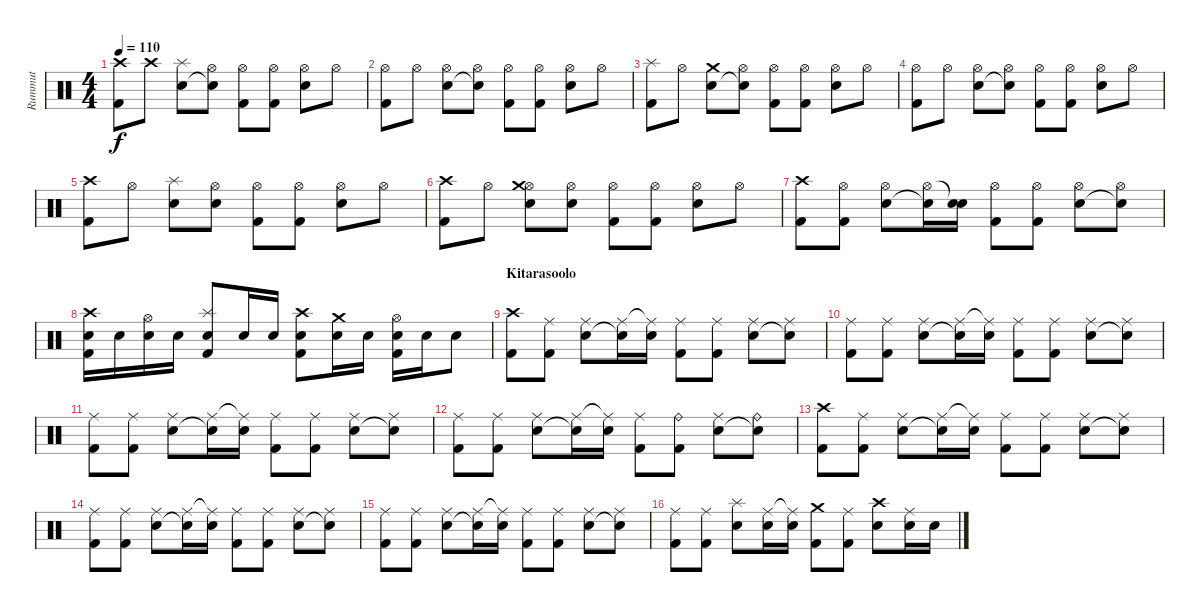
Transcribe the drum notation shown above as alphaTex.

\track ("Rummut" "Rummut") {instrument percussion}
\staff {score}
\articulation defaults
\ts (4 4)
\tempo 110
\clef neutral
\ks c
("Crash high (hit)" "Kick (hit) 2").8{dy f} "Crash high (hit)".8 ("Splash (hit)" "Snare (hit) 2").8 ("Hi-Hat (open)" "Snare (hit)"{t}).8 ("Hi-Hat (open)" "Kick (hit) 2").8 ("Hi-Hat (open)" "Kick (hit) 2").8 ("Hi-Hat (open)" "Snare (hit) 2").8 "Hi-Hat (open)".8 |
("Hi-Hat (open)" "Kick (hit) 2").8 "Hi-Hat (open)".8 ("Hi-Hat (open)" "Snare (hit) 2").8 ("Hi-Hat (open)" "Snare (hit)"{t}).8 ("Hi-Hat (open)" "Kick (hit) 2").8 ("Hi-Hat (open)" "Kick (hit) 2").8 ("Hi-Hat (open)" "Snare (hit) 2").8 "Hi-Hat (open)".8 |
("Splash (hit)" "Kick (hit) 2").8 "Hi-Hat (open)".8 ("Crash medium (hit)" "Snare (hit) 2").8 ("Hi-Hat (open)" "Snare (hit)"{t}).8 ("Hi-Hat (open)" "Kick (hit) 2").8 ("Hi-Hat (open)" "Kick (hit) 2").8 ("Hi-Hat (open)" "Snare (hit) 2").8 "Hi-Hat (open)".8 |
("Hi-Hat (open)" "Kick (hit) 2").8 "Hi-Hat (open)".8 ("Hi-Hat (open)" "Snare (hit) 2").8 ("Hi-Hat (open)" "Snare (hit)"{t}).8 ("Hi-Hat (open)" "Kick (hit) 2").8 ("Hi-Hat (open)" "Kick (hit) 2").8 ("Hi-Hat (open)" "Snare (hit) 2").8 "Hi-Hat (open)".8 |
("Crash high (hit)" "Kick (hit) 2").8 "Hi-Hat (open)".8 ("Splash (hit)" "Snare (hit) 2").8 ("Hi-Hat (open)" "Snare (hit) 2").8 ("Hi-Hat (open)" "Kick (hit) 2").8 ("Hi-Hat (open)" "Kick (hit) 2").8 ("Hi-Hat (open)" "Snare (hit) 2").8 "Hi-Hat (open)".8 |
("Crash high (hit)" "Kick (hit) 2").8 "Hi-Hat (open)".8 ("Hi-Hat (open)" "Crash medium (hit)" "Snare (hit) 2").8 ("Hi-Hat (open)" "Snare (hit) 2").8 ("Hi-Hat (open)" "Kick (hit) 2").8 ("Hi-Hat (open)" "Kick (hit) 2").8 ("Hi-Hat (open)" "Snare (hit) 2").8 "Hi-Hat (open)".8 |
("Crash high (hit)" "Kick (hit) 2").8 ("Hi-Hat (open)" "Kick (hit) 2").8 ("Hi-Hat (open)" "Snare (hit) 2").8 ("Hi-Hat (open)" "Snare (hit) 2"{t}).16 ("Snare (hit)"{t} "Snare (hit) 2").16 ("Hi-Hat (open)" "Kick (hit) 2").8 ("Hi-Hat (open)" "Kick (hit) 2").8 ("Hi-Hat (open)" "Snare (hit) 2").8 ("Hi-Hat (open)" "Snare (hit)"{t}).8 |
("Crash high (hit)" "Snare (hit) 2" "Kick (hit) 2").16 "Snare (hit) 2".16 ("Hi-Hat (open)" "Snare (hit) 2").16 "Snare (hit) 2".16 ("Splash (hit)" "Snare (hit) 2" "Kick (hit) 2").8 "Snare (hit) 2".16 "Snare (hit) 2".16 ("Crash high (hit)" "Snare (hit) 2" "Kick (hit) 2").8 ("Crash medium (hit)" "Snare (hit) 2").16 "Snare (hit) 2".16 ("Hi-Hat (open)" "Snare (hit) 2" "Kick (hit) 2").16 "Snare (hit) 2".16 "Snare (hit) 2".8 |
\section ("" "Kitarasoolo")
("Crash high (hit)" "Kick (hit) 2").8 ("Ride (middle)" "Kick (hit) 2").8 ("Ride (middle)" "Snare (hit) 2").8 ("Ride (middle)" "Snare (hit)"{t}).16 ("Ride (middle)"{t} "Snare (hit) 2").16 ("Ride (middle)" "Kick (hit) 2").8 ("Ride (middle)" "Kick (hit) 2").8 ("Ride (middle)" "Snare (hit) 2").8 ("Ride (middle)" "Snare (hit)"{t}).8 |
("Ride (middle)" "Kick (hit) 2").8 ("Ride (middle)" "Kick (hit) 2").8 ("Ride (middle)" "Snare (hit) 2").8 ("Ride (middle)" "Snare (hit)"{t}).16 ("Ride (middle)"{t} "Snare (hit) 2").16 ("Ride (middle)" "Kick (hit) 2").8 ("Ride (middle)" "Kick (hit) 2").8 ("Ride (middle)" "Snare (hit) 2").8 ("Ride (middle)" "Snare (hit)"{t}).8 |
("Ride (middle)" "Kick (hit) 2").8 ("Ride (middle)" "Kick (hit) 2").8 ("Ride (middle)" "Snare (hit) 2").8 ("Ride (middle)" "Snare (hit)"{t}).16 ("Ride (middle)"{t} "Snare (hit) 2").16 ("Ride (middle)" "Kick (hit) 2").8 ("Ride (middle)" "Kick (hit) 2").8 ("Ride (middle)" "Snare (hit) 2").8 ("Ride (middle)" "Snare (hit)"{t}).8 |
("Ride (middle)" "Kick (hit) 2").8 ("Ride (middle)" "Kick (hit) 2").8 ("Ride (middle)" "Snare (hit) 2").8 ("Ride (middle)" "Snare (hit)"{t}).16 ("Ride (middle)"{t} "Snare (hit) 2").16 ("Ride (middle)" "Kick (hit) 2").8 ("Ride (bell)" "Kick (hit) 2").8 ("Ride (middle)" "Snare (hit) 2").8 ("Ride (bell)" "Snare (hit)"{t}).8 |
("Crash high (hit)" "Kick (hit) 2").8 ("Ride (middle)" "Kick (hit) 2").8 ("Ride (middle)" "Snare (hit) 2").8 ("Ride (middle)" "Snare (hit)"{t}).16 ("Ride (middle)"{t} "Snare (hit) 2").16 ("Ride (middle)" "Kick (hit) 2").8 ("Ride (middle)" "Kick (hit) 2").8 ("Ride (middle)" "Snare (hit) 2").8 ("Ride (middle)" "Snare (hit)"{t}).8 |
("Ride (middle)" "Kick (hit) 2").8 ("Ride (middle)" "Kick (hit) 2").8 ("Ride (middle)" "Snare (hit) 2").8 ("Ride (middle)" "Snare (hit)"{t}).16 ("Ride (middle)"{t} "Snare (hit) 2").16 ("Ride (middle)" "Kick (hit) 2").8 ("Ride (middle)" "Kick (hit) 2").8 ("Ride (middle)" "Snare (hit) 2").8 ("Ride (middle)" "Snare (hit)"{t}).8 |
("Ride (middle)" "Kick (hit) 2").8 ("Ride (middle)" "Kick (hit) 2").8 ("Ride (middle)" "Snare (hit) 2").8 ("Ride (middle)" "Snare (hit)"{t}).16 ("Ride (middle)"{t} "Snare (hit) 2").16 ("Ride (middle)" "Kick (hit) 2").8 ("Ride (middle)" "Kick (hit) 2").8 ("Ride (middle)" "Snare (hit) 2").8 ("Ride (middle)" "Snare (hit)"{t}).8 |
("Ride (middle)" "Kick (hit) 2").8 ("Ride (middle)" "Kick (hit) 2").8 ("Splash (hit)" "Snare (hit) 2").8 ("Ride (middle)" "Snare (hit) 2").16 ("Ride (middle)"{t} "Snare (hit) 2").16 ("Crash medium (hit)" "Kick (hit) 2").8 ("Ride (middle)" "Kick (hit) 2").8 ("Crash high (hit)" "Snare (hit) 2").8 ("Ride (middle)" "Snare (hit) 2").16 "Snare (hit) 2".16
